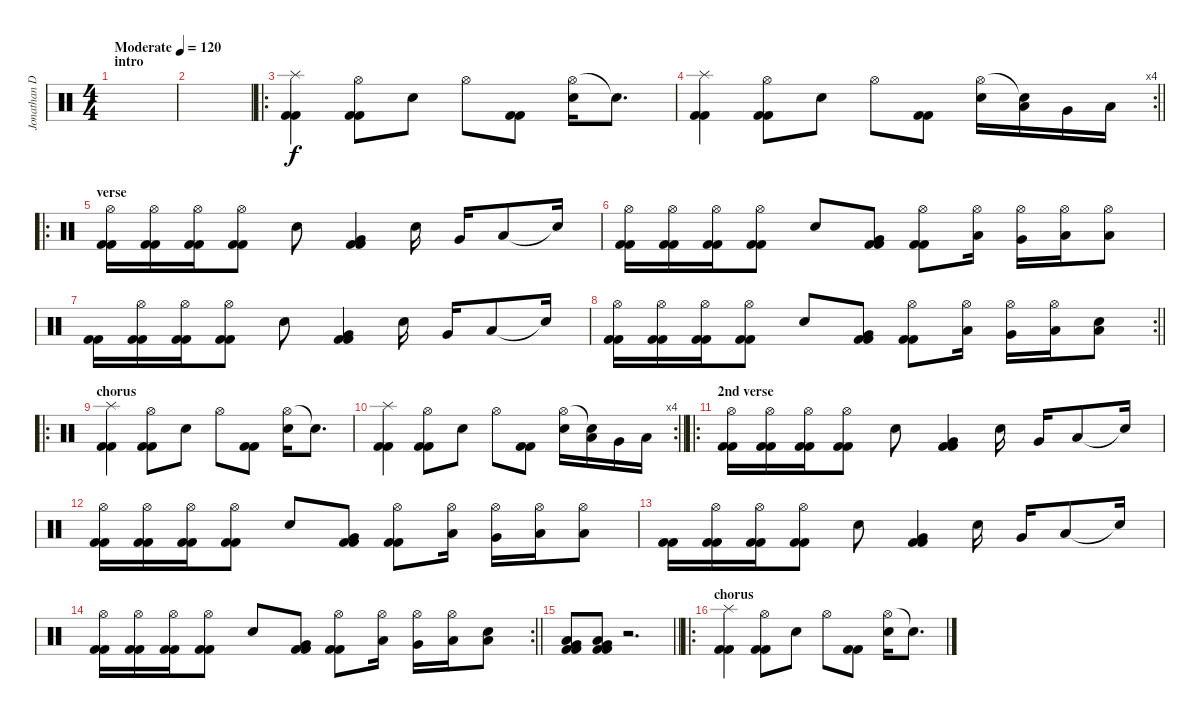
\track ("Jonathan Davis" "Jonathan D") {instrument percussion}
\staff {score}
\articulation defaults
\ts (4 4)
\section ("" "intro")
\tempo (120 "Moderate")
\clef neutral
\ks c
|
|
\ro
("Splash (hit)" "Kick (hit) 2" "Kick (hit) 2").4 ("Hi-Hat (open)" "Kick (hit) 2" "Kick (hit) 2").8 "Snare (hit) 2".8 "Hi-Hat (open)".8 ("Kick (hit) 2" "Kick (hit) 2").8 ("Hi-Hat (open)" "Snare (hit) 2").16 "Snare (hit)"{t}.8{d} |
\rc 4
\barLineRight lightlight
("Splash (hit)" "Kick (hit) 2" "Kick (hit) 2").4 ("Hi-Hat (open)" "Kick (hit) 2" "Kick (hit) 2").8 "Snare (hit) 2".8 "Hi-Hat (open)".8 ("Kick (hit) 2" "Kick (hit) 2").8 ("Hi-Hat (open)" "Snare (hit) 2").16 ("Snare (hit)"{t} "Low Tom (hit)").16 "Very Low Tom (hit)".16 "Low Floor Tom (hit)".16 |
\ro
\section ("" "verse")
("Hi-Hat (open)" "Kick (hit) 2" "Kick (hit) 2").16 ("Hi-Hat (open)" "Kick (hit) 2" "Kick (hit) 2").16 ("Hi-Hat (open)" "Kick (hit) 2" "Kick (hit) 2").16 ("Hi-Hat (open)" "Kick (hit) 2" "Kick (hit) 2").8 "Snare (hit) 2".8 ("Very Low Tom (hit)" "Kick (hit) 2" "Kick (hit) 2").4 "Snare (hit) 2".16 "Very Low Tom (hit)".16 "Low Floor Tom (hit)".8 "Snare (hit)"{t}.16 |
("Hi-Hat (open)" "Kick (hit) 2" "Kick (hit) 2").16 ("Hi-Hat (open)" "Kick (hit) 2" "Kick (hit) 2").16 ("Hi-Hat (open)" "Kick (hit) 2" "Kick (hit) 2").16 ("Hi-Hat (open)" "Kick (hit) 2" "Kick (hit) 2").8 "Snare (hit) 2".8 ("Very Low Tom (hit)" "Kick (hit) 2" "Kick (hit) 2").8 ("Hi-Hat (open)" "Kick (hit) 2" "Kick (hit) 2").8 ("Hi-Hat (open)" "Low Tom (hit)").16 ("Hi-Hat (open)" "Very Low Tom (hit)").16 ("Hi-Hat (open)" "Low Floor Tom (hit)").16 ("Hi-Hat (open)" "Low Floor Tom (hit)").8 |
("Kick (hit) 2" "Kick (hit) 2").16 ("Hi-Hat (open)" "Kick (hit) 2" "Kick (hit) 2").16 ("Hi-Hat (open)" "Kick (hit) 2" "Kick (hit) 2").16 ("Hi-Hat (open)" "Kick (hit) 2" "Kick (hit) 2").8 "Snare (hit) 2".8 ("Very Low Tom (hit)" "Kick (hit) 2" "Kick (hit) 2").4 "Snare (hit) 2".16 "Very Low Tom (hit)".16 "Low Floor Tom (hit)".8 "Snare (hit)"{t}.16 |
\rc 2
\barLineRight lightlight
("Hi-Hat (open)" "Kick (hit) 2" "Kick (hit) 2").16 ("Hi-Hat (open)" "Kick (hit) 2" "Kick (hit) 2").16 ("Hi-Hat (open)" "Kick (hit) 2" "Kick (hit) 2").16 ("Hi-Hat (open)" "Kick (hit) 2" "Kick (hit) 2").8 "Snare (hit) 2".8 ("Very Low Tom (hit)" "Kick (hit) 2" "Kick (hit) 2").8 ("Hi-Hat (open)" "Kick (hit) 2" "Kick (hit) 2").8 ("Hi-Hat (open)" "Low Tom (hit)").16 ("Hi-Hat (open)" "Very Low Tom (hit)").16 ("Hi-Hat (open)" "Low Floor Tom (hit)").16 ("Snare (hit)" "Low Floor Tom (hit)").8 |
\ro
\section ("" "chorus")
("Splash (hit)" "Kick (hit) 2" "Kick (hit) 2").4 ("Hi-Hat (open)" "Kick (hit) 2" "Kick (hit) 2").8 "Snare (hit) 2".8 "Hi-Hat (open)".8 ("Kick (hit) 2" "Kick (hit) 2").8 ("Hi-Hat (open)" "Snare (hit) 2").16 "Snare (hit)"{t}.8{d} |
\rc 4
\barLineRight lightlight
("Splash (hit)" "Kick (hit) 2" "Kick (hit) 2").4 ("Hi-Hat (open)" "Kick (hit) 2" "Kick (hit) 2").8 "Snare (hit) 2".8 "Hi-Hat (open)".8 ("Kick (hit) 2" "Kick (hit) 2").8 ("Hi-Hat (open)" "Snare (hit) 2").16 ("Snare (hit)"{t} "Low Tom (hit)").16 "Very Low Tom (hit)".16 "Low Floor Tom (hit)".16 |
\ro
\section ("" "2nd verse")
("Hi-Hat (open)" "Kick (hit) 2" "Kick (hit) 2").16 ("Hi-Hat (open)" "Kick (hit) 2" "Kick (hit) 2").16 ("Hi-Hat (open)" "Kick (hit) 2" "Kick (hit) 2").16 ("Hi-Hat (open)" "Kick (hit) 2" "Kick (hit) 2").8 "Snare (hit) 2".8 ("Very Low Tom (hit)" "Kick (hit) 2" "Kick (hit) 2").4 "Snare (hit) 2".16 "Very Low Tom (hit)".16 "Low Floor Tom (hit)".8 "Snare (hit)"{t}.16 |
("Hi-Hat (open)" "Kick (hit) 2" "Kick (hit) 2").16 ("Hi-Hat (open)" "Kick (hit) 2" "Kick (hit) 2").16 ("Hi-Hat (open)" "Kick (hit) 2" "Kick (hit) 2").16 ("Hi-Hat (open)" "Kick (hit) 2" "Kick (hit) 2").8 "Snare (hit) 2".8 ("Very Low Tom (hit)" "Kick (hit) 2" "Kick (hit) 2").8 ("Hi-Hat (open)" "Kick (hit) 2" "Kick (hit) 2").8 ("Hi-Hat (open)" "Low Tom (hit)").16 ("Hi-Hat (open)" "Very Low Tom (hit)").16 ("Hi-Hat (open)" "Low Floor Tom (hit)").16 ("Hi-Hat (open)" "Low Floor Tom (hit)").8 |
("Kick (hit) 2" "Kick (hit) 2").16 ("Hi-Hat (open)" "Kick (hit) 2" "Kick (hit) 2").16 ("Hi-Hat (open)" "Kick (hit) 2" "Kick (hit) 2").16 ("Hi-Hat (open)" "Kick (hit) 2" "Kick (hit) 2").8 "Snare (hit) 2".8 ("Very Low Tom (hit)" "Kick (hit) 2" "Kick (hit) 2").4 "Snare (hit) 2".16 "Very Low Tom (hit)".16 "Low Floor Tom (hit)".8 "Snare (hit)"{t}.16 |
\rc 2
\barLineRight lightlight
("Hi-Hat (open)" "Kick (hit) 2" "Kick (hit) 2").16 ("Hi-Hat (open)" "Kick (hit) 2" "Kick (hit) 2").16 ("Hi-Hat (open)" "Kick (hit) 2" "Kick (hit) 2").16 ("Hi-Hat (open)" "Kick (hit) 2" "Kick (hit) 2").8 "Snare (hit) 2".8 ("Very Low Tom (hit)" "Kick (hit) 2" "Kick (hit) 2").8 ("Hi-Hat (open)" "Kick (hit) 2" "Kick (hit) 2").8 ("Hi-Hat (open)" "Low Tom (hit)").16 ("Hi-Hat (open)" "Very Low Tom (hit)").16 ("Hi-Hat (open)" "Low Floor Tom (hit)").16 ("Snare (hit)" "Low Floor Tom (hit)").8 |
\barLineRight lightlight
("Low Floor Tom (hit)" "Very Low Tom (hit)" "Kick (hit) 2" "Kick (hit) 2").8 ("Low Floor Tom (hit)" "Very Low Tom (hit)" "Kick (hit) 2" "Kick (hit) 2").8 r.2{d} |
\ro
\section ("" "chorus")
("Splash (hit)" "Kick (hit) 2" "Kick (hit) 2").4 ("Hi-Hat (open)" "Kick (hit) 2" "Kick (hit) 2").8 "Snare (hit) 2".8 "Hi-Hat (open)".8 ("Kick (hit) 2" "Kick (hit) 2").8 ("Hi-Hat (open)" "Snare (hit) 2").16 "Snare (hit)"{t}.8{d}
